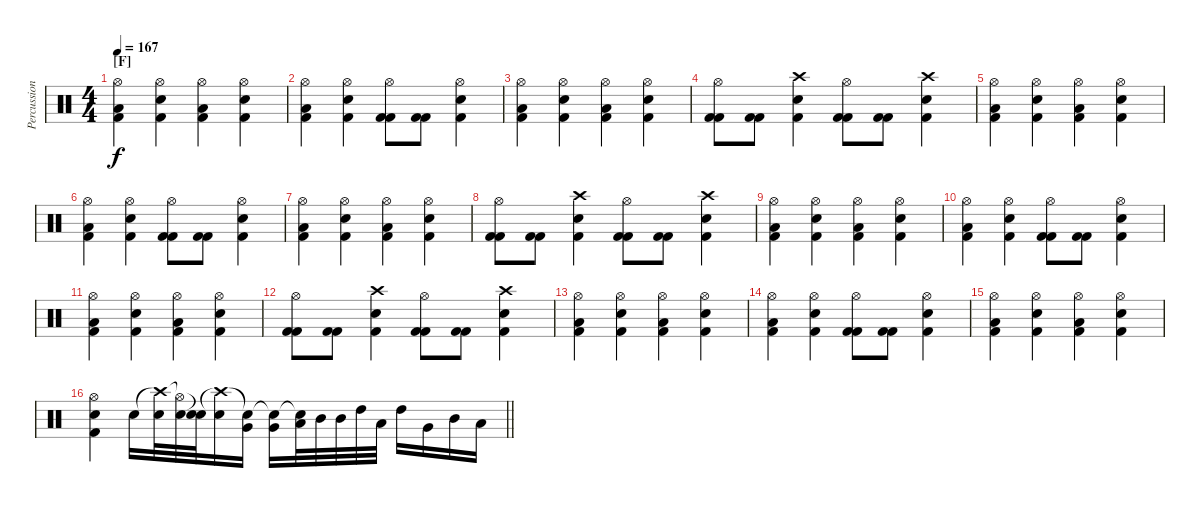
\track ("Percussions" "Percussion") {instrument percussion}
\staff {score}
\articulation defaults
\ts (4 4)
\section ("" "[F]")
\tempo 167
\clef neutral
\ks c
("Hi-Hat (open)" "Low Floor Tom (hit)" "Kick (hit) 2").4{dy f} ("Hi-Hat (open)" "Electric Snare (hit)" "Kick (hit) 2").4 ("Hi-Hat (open)" "Low Floor Tom (hit)" "Kick (hit) 2").4 ("Hi-Hat (open)" "Electric Snare (hit)" "Kick (hit) 2").4 |
("Hi-Hat (open)" "Low Floor Tom (hit)" "Kick (hit) 2").4 ("Hi-Hat (open)" "Electric Snare (hit)" "Kick (hit) 2").4 ("Hi-Hat (open)" "Kick (hit) 2" "Kick (hit) 2").8 ("Kick (hit) 2" "Kick (hit) 2").8 ("Hi-Hat (open)" "Electric Snare (hit)" "Kick (hit) 2").4 |
("Hi-Hat (open)" "Low Floor Tom (hit)" "Kick (hit) 2").4 ("Hi-Hat (open)" "Electric Snare (hit)" "Kick (hit) 2").4 ("Hi-Hat (open)" "Low Floor Tom (hit)" "Kick (hit) 2").4 ("Hi-Hat (open)" "Electric Snare (hit)" "Kick (hit) 2").4 |
("Hi-Hat (open)" "Kick (hit) 2" "Kick (hit) 2").8 ("Kick (hit) 2" "Kick (hit) 2").8 ("Crash high (hit)" "Electric Snare (hit)" "Kick (hit) 2").4 ("Hi-Hat (open)" "Kick (hit) 2" "Kick (hit) 2").8 ("Kick (hit) 2" "Kick (hit) 2").8 ("Crash high (hit)" "Electric Snare (hit)" "Kick (hit) 2").4 |
("Hi-Hat (open)" "Low Floor Tom (hit)" "Kick (hit) 2").4 ("Hi-Hat (open)" "Electric Snare (hit)" "Kick (hit) 2").4 ("Hi-Hat (open)" "Low Floor Tom (hit)" "Kick (hit) 2").4 ("Hi-Hat (open)" "Electric Snare (hit)" "Kick (hit) 2").4 |
("Hi-Hat (open)" "Low Floor Tom (hit)" "Kick (hit) 2").4 ("Hi-Hat (open)" "Electric Snare (hit)" "Kick (hit) 2").4 ("Hi-Hat (open)" "Kick (hit) 2" "Kick (hit) 2").8 ("Kick (hit) 2" "Kick (hit) 2").8 ("Hi-Hat (open)" "Electric Snare (hit)" "Kick (hit) 2").4 |
("Hi-Hat (open)" "Low Floor Tom (hit)" "Kick (hit) 2").4 ("Hi-Hat (open)" "Electric Snare (hit)" "Kick (hit) 2").4 ("Hi-Hat (open)" "Low Floor Tom (hit)" "Kick (hit) 2").4 ("Hi-Hat (open)" "Electric Snare (hit)" "Kick (hit) 2").4 |
("Hi-Hat (open)" "Kick (hit) 2" "Kick (hit) 2").8 ("Kick (hit) 2" "Kick (hit) 2").8 ("Crash high (hit)" "Electric Snare (hit)" "Kick (hit) 2").4 ("Hi-Hat (open)" "Kick (hit) 2" "Kick (hit) 2").8 ("Kick (hit) 2" "Kick (hit) 2").8 ("Crash high (hit)" "Electric Snare (hit)" "Kick (hit) 2").4 |
("Hi-Hat (open)" "Low Floor Tom (hit)" "Kick (hit) 2").4 ("Hi-Hat (open)" "Electric Snare (hit)" "Kick (hit) 2").4 ("Hi-Hat (open)" "Low Floor Tom (hit)" "Kick (hit) 2").4 ("Hi-Hat (open)" "Electric Snare (hit)" "Kick (hit) 2").4 |
("Hi-Hat (open)" "Low Floor Tom (hit)" "Kick (hit) 2").4 ("Hi-Hat (open)" "Electric Snare (hit)" "Kick (hit) 2").4 ("Hi-Hat (open)" "Kick (hit) 2" "Kick (hit) 2").8 ("Kick (hit) 2" "Kick (hit) 2").8 ("Hi-Hat (open)" "Electric Snare (hit)" "Kick (hit) 2").4 |
("Hi-Hat (open)" "Low Floor Tom (hit)" "Kick (hit) 2").4 ("Hi-Hat (open)" "Electric Snare (hit)" "Kick (hit) 2").4 ("Hi-Hat (open)" "Low Floor Tom (hit)" "Kick (hit) 2").4 ("Hi-Hat (open)" "Electric Snare (hit)" "Kick (hit) 2").4 |
("Hi-Hat (open)" "Kick (hit) 2" "Kick (hit) 2").8 ("Kick (hit) 2" "Kick (hit) 2").8 ("Crash high (hit)" "Electric Snare (hit)" "Kick (hit) 2").4 ("Hi-Hat (open)" "Kick (hit) 2" "Kick (hit) 2").8 ("Kick (hit) 2" "Kick (hit) 2").8 ("Crash high (hit)" "Electric Snare (hit)" "Kick (hit) 2").4 |
("Hi-Hat (open)" "Low Floor Tom (hit)" "Kick (hit) 2").4 ("Hi-Hat (open)" "Electric Snare (hit)" "Kick (hit) 2").4 ("Hi-Hat (open)" "Low Floor Tom (hit)" "Kick (hit) 2").4 ("Hi-Hat (open)" "Electric Snare (hit)" "Kick (hit) 2").4 |
("Hi-Hat (open)" "Low Floor Tom (hit)" "Kick (hit) 2").4 ("Hi-Hat (open)" "Electric Snare (hit)" "Kick (hit) 2").4 ("Hi-Hat (open)" "Kick (hit) 2" "Kick (hit) 2").8 ("Kick (hit) 2" "Kick (hit) 2").8 ("Hi-Hat (open)" "Electric Snare (hit)" "Kick (hit) 2").4 |
("Hi-Hat (open)" "Low Floor Tom (hit)" "Kick (hit) 2").4 ("Hi-Hat (open)" "Electric Snare (hit)" "Kick (hit) 2").4 ("Hi-Hat (open)" "Low Floor Tom (hit)" "Kick (hit) 2").4 ("Hi-Hat (open)" "Electric Snare (hit)" "Kick (hit) 2").4 |
\barLineRight lightlight
("Hi-Hat (open)" "Electric Snare (hit)" "Kick (hit) 2").4 "Electric Snare (hit)".16 ("Crash high (hit)"{t} "Electric Snare (hit)").32 ("Hi-Hat (open)"{t} "Electric Snare (hit)").32 ("Snare (hit)"{t} "Electric Snare (hit)").32 ("Crash high (hit)"{t} "Electric Snare (hit)").16 ("Snare (hit)"{t} "Very Low Tom (hit)").16 ("Snare (hit)"{t} "Very Low Tom (hit)").16 ("Snare (hit)"{t} "Low Tom (hit)").32 "Mid Tom (hit)".32 "Mid Tom (hit)".32 "High Tom (hit)".32 "Low Tom (hit)".32 "High Tom (hit)".16 "Very Low Tom (hit)".16 "Mid Tom (hit)".16 "Low Floor Tom (hit)".16
